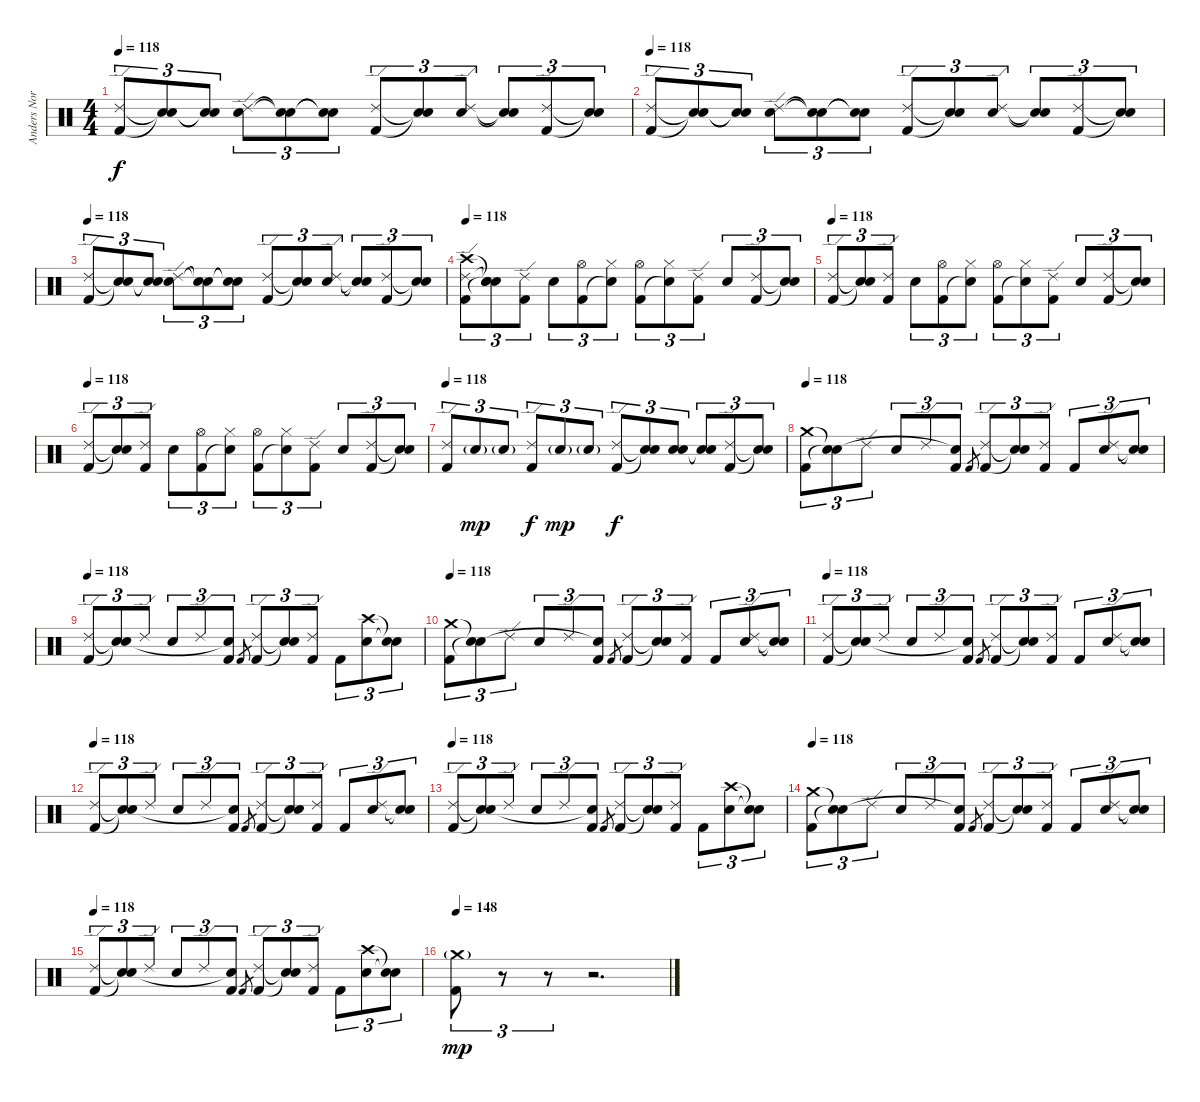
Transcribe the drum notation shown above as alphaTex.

\track ("Anders Nordin" "Anders Nor") {instrument percussion}
\staff {score}
\articulation defaults
\ts (4 4)
\tempo 118
\clef neutral
\ks c
("Kick (hit) 2" "Ride (edge) 2").8{tu (3 2) dy f} ("Snare (hit)"{t} "Snare (hit)"{t}).8{tu (3 2)} ("Snare (hit)"{t} "Snare (hit)"{t}).8{tu (3 2)} ("Electric Snare (hit)" "Ride (edge) 2").8{tu (3 2)} ("Snare (hit)"{t} "Snare (hit)"{t}).8{tu (3 2)} ("Snare (hit)"{t} "Snare (hit)"{t}).8{tu (3 2)} ("Kick (hit) 2" "Ride (edge) 2").8{tu (3 2)} ("Snare (hit)"{t} "Snare (hit)"{t}).8{tu (3 2)} ("Electric Snare (hit)" "Ride (edge) 2").8{tu (3 2)} ("Snare (hit)"{t} "Snare (hit)"{t}).8{tu (3 2)} ("Kick (hit) 2" "Ride (edge) 2").8{tu (3 2)} ("Snare (hit)"{t} "Snare (hit)"{t}).8{tu (3 2)} |
\tempo 118
("Kick (hit) 2" "Ride (edge) 2").8{tu (3 2) volume 10} ("Snare (hit)"{t} "Snare (hit)"{t}).8{tu (3 2)} ("Snare (hit)"{t} "Snare (hit)"{t}).8{tu (3 2)} ("Electric Snare (hit)" "Ride (edge) 2").8{tu (3 2)} ("Snare (hit)"{t} "Snare (hit)"{t}).8{tu (3 2)} ("Snare (hit)"{t} "Snare (hit)"{t}).8{tu (3 2)} ("Kick (hit) 2" "Ride (edge) 2").8{tu (3 2)} ("Snare (hit)"{t} "Snare (hit)"{t}).8{tu (3 2)} ("Electric Snare (hit)" "Ride (edge) 2").8{tu (3 2)} ("Snare (hit)"{t} "Snare (hit)"{t}).8{tu (3 2)} ("Kick (hit) 2" "Ride (edge) 2").8{tu (3 2)} ("Snare (hit)"{t} "Snare (hit)"{t}).8{tu (3 2)} |
\tempo 118
("Kick (hit) 2" "Ride (edge) 2").8{tu (3 2)} ("Snare (hit)"{t} "Snare (hit)"{t}).8{tu (3 2)} ("Snare (hit)"{t} "Snare (hit)"{t}).8{tu (3 2)} ("Electric Snare (hit)" "Ride (edge) 2").8{tu (3 2)} ("Snare (hit)"{t} "Snare (hit)"{t}).8{tu (3 2)} ("Snare (hit)"{t} "Snare (hit)"{t}).8{tu (3 2)} ("Kick (hit) 2" "Ride (edge) 2").8{tu (3 2)} ("Snare (hit)"{t} "Snare (hit)"{t}).8{tu (3 2)} ("Electric Snare (hit)" "Ride (edge) 2").8{tu (3 2)} ("Snare (hit)"{t} "Snare (hit)"{t}).8{tu (3 2)} ("Kick (hit) 2" "Ride (edge) 2").8{tu (3 2)} ("Snare (hit)"{t} "Snare (hit)"{t}).8{tu (3 2)} |
\tempo 118
("Kick (hit) 2" "Ride (edge) 2" "Crash high (hit)").8{tu (3 2)} ("Snare (hit)"{t} "Snare (hit)"{t} "Snare (hit)"{t}).8{tu (3 2)} ("Kick (hit) 2" "Ride (edge) 2").8{tu (3 2)} "Electric Snare (hit)".8{tu (3 2)} ("Kick (hit) 2" "Hi-Hat (open)").8{tu (3 2)} ("Snare (hit)"{t} "Hi-Hat (closed)").8{tu (3 2)} ("Kick (hit) 2" "Hi-Hat (open)").8{tu (3 2)} ("Snare (hit)"{t} "Hi-Hat (closed)").8{tu (3 2)} ("Kick (hit) 2" "Ride (edge) 2").8{tu (3 2)} "Electric Snare (hit)".8{tu (3 2)} ("Kick (hit) 2" "Ride (edge) 2").8{tu (3 2)} ("Snare (hit)"{t} "Snare (hit)"{t}).8{tu (3 2)} |
\tempo 118
("Kick (hit) 2" "Ride (edge) 2").8{tu (3 2)} ("Snare (hit)"{t} "Snare (hit)"{t}).8{tu (3 2)} ("Kick (hit) 2" "Ride (edge) 2").8{tu (3 2)} "Electric Snare (hit)".8{tu (3 2)} ("Kick (hit) 2" "Hi-Hat (open)").8{tu (3 2)} ("Snare (hit)"{t} "Hi-Hat (closed)").8{tu (3 2)} ("Kick (hit) 2" "Hi-Hat (open)").8{tu (3 2)} ("Snare (hit)"{t} "Hi-Hat (closed)").8{tu (3 2)} ("Kick (hit) 2" "Ride (edge) 2").8{tu (3 2)} "Electric Snare (hit)".8{tu (3 2)} ("Kick (hit) 2" "Ride (edge) 2").8{tu (3 2)} ("Snare (hit)"{t} "Snare (hit)"{t}).8{tu (3 2)} |
\tempo 118
("Kick (hit) 2" "Ride (edge) 2").8{tu (3 2)} ("Snare (hit)"{t} "Snare (hit)"{t}).8{tu (3 2)} ("Kick (hit) 2" "Ride (edge) 2").8{tu (3 2)} "Electric Snare (hit)".8{tu (3 2)} ("Kick (hit) 2" "Hi-Hat (open)").8{tu (3 2)} ("Snare (hit)"{t} "Hi-Hat (closed)").8{tu (3 2)} ("Kick (hit) 2" "Hi-Hat (open)").8{tu (3 2)} ("Snare (hit)"{t} "Hi-Hat (closed)").8{tu (3 2)} ("Kick (hit) 2" "Ride (edge) 2").8{tu (3 2)} "Electric Snare (hit)".8{tu (3 2)} ("Kick (hit) 2" "Ride (edge) 2").8{tu (3 2)} ("Snare (hit)"{t} "Snare (hit)"{t}).8{tu (3 2)} |
\tempo 118
("Kick (hit) 2" "Ride (edge) 2").8{tu (3 2)} "Electric Snare (hit)"{g}.8{tu (3 2) dy mp} "Electric Snare (hit)"{g}.8{tu (3 2)} ("Kick (hit) 2" "Ride (edge) 2").8{tu (3 2) dy f} "Electric Snare (hit)"{g}.8{tu (3 2) dy mp} "Electric Snare (hit)"{g}.8{tu (3 2)} ("Kick (hit) 2" "Ride (edge) 2").8{tu (3 2) dy f} ("Snare (hit)"{t} "Snare (hit)"{t}).8{tu (3 2)} ("Electric Snare (hit)" "Electric Snare (hit)").8{tu (3 2)} ("Snare (hit)"{t} "Snare (hit)"{t}).8{tu (3 2)} ("Kick (hit) 2" "Ride (edge) 2").8{tu (3 2)} ("Snare (hit)"{t} "Snare (hit)"{t}).8{tu (3 2)} |
\tempo 118
("Kick (hit) 2" "Crash medium (hit)").8{tu (3 2) volume 12} ("Snare (hit)"{t} "Snare (hit)"{t}).8{tu (3 2)} "Ride (edge) 2".8{tu (3 2)} "Electric Snare (hit)".8{tu (3 2)} "Ride (edge) 2".8{tu (3 2)} ("Kick (hit) 2" "Snare (hit)"{t}).8{tu (3 2)} "Kick (hit) 2".8{gr} ("Kick (hit) 2" "Ride (edge) 2").8{tu (3 2)} ("Snare (hit)"{t} "Snare (hit)"{t}).8{tu (3 2)} ("Kick (hit) 2" "Ride (edge) 2").8{tu (3 2)} "Kick (hit) 2".8{tu (3 2)} ("Electric Snare (hit)" "Ride (edge) 2").8{tu (3 2)} ("Snare (hit)"{t} "Snare (hit)"{t}).8{tu (3 2)} |
\tempo 118
("Kick (hit) 2" "Ride (edge) 2").8{tu (3 2) volume 12} ("Snare (hit)"{t} "Snare (hit)"{t}).8{tu (3 2)} "Ride (edge) 2".8{tu (3 2)} "Electric Snare (hit)".8{tu (3 2)} "Ride (edge) 2".8{tu (3 2)} ("Kick (hit) 2" "Snare (hit)"{t}).8{tu (3 2)} "Kick (hit) 2".8{gr} ("Kick (hit) 2" "Ride (edge) 2").8{tu (3 2)} ("Snare (hit)"{t} "Snare (hit)"{t}).8{tu (3 2)} ("Kick (hit) 2" "Ride (edge) 2").8{tu (3 2)} "Kick (hit) 2".8{tu (3 2)} ("Electric Snare (hit)" "Crash high (hit)").8{tu (3 2)} ("Snare (hit)"{t} "Snare (hit)"{t}).8{tu (3 2)} |
\tempo 118
("Kick (hit) 2" "Crash medium (hit)").8{tu (3 2) volume 12} ("Snare (hit)"{t} "Snare (hit)"{t}).8{tu (3 2)} "Ride (edge) 2".8{tu (3 2)} "Electric Snare (hit)".8{tu (3 2)} "Ride (edge) 2".8{tu (3 2)} ("Kick (hit) 2" "Snare (hit)"{t}).8{tu (3 2)} "Kick (hit) 2".8{gr} ("Kick (hit) 2" "Ride (edge) 2").8{tu (3 2)} ("Snare (hit)"{t} "Snare (hit)"{t}).8{tu (3 2)} ("Kick (hit) 2" "Ride (edge) 2").8{tu (3 2)} "Kick (hit) 2".8{tu (3 2)} ("Electric Snare (hit)" "Ride (edge) 2").8{tu (3 2)} ("Snare (hit)"{t} "Snare (hit)"{t}).8{tu (3 2)} |
\tempo 118
("Kick (hit) 2" "Ride (edge) 2").8{tu (3 2) volume 12} ("Snare (hit)"{t} "Snare (hit)"{t}).8{tu (3 2)} "Ride (edge) 2".8{tu (3 2)} "Electric Snare (hit)".8{tu (3 2)} "Ride (edge) 2".8{tu (3 2)} ("Kick (hit) 2" "Snare (hit)"{t}).8{tu (3 2)} "Kick (hit) 2".8{gr} ("Kick (hit) 2" "Ride (edge) 2").8{tu (3 2)} ("Snare (hit)"{t} "Snare (hit)"{t}).8{tu (3 2)} ("Kick (hit) 2" "Ride (edge) 2").8{tu (3 2)} "Kick (hit) 2".8{tu (3 2)} ("Electric Snare (hit)" "Ride (edge) 2").8{tu (3 2)} ("Snare (hit)"{t} "Snare (hit)"{t}).8{tu (3 2)} |
\tempo 118
("Kick (hit) 2" "Ride (edge) 2").8{tu (3 2) volume 12} ("Snare (hit)"{t} "Snare (hit)"{t}).8{tu (3 2)} "Ride (edge) 2".8{tu (3 2)} "Electric Snare (hit)".8{tu (3 2)} "Ride (edge) 2".8{tu (3 2)} ("Kick (hit) 2" "Snare (hit)"{t}).8{tu (3 2)} "Kick (hit) 2".8{gr} ("Kick (hit) 2" "Ride (edge) 2").8{tu (3 2)} ("Snare (hit)"{t} "Snare (hit)"{t}).8{tu (3 2)} ("Kick (hit) 2" "Ride (edge) 2").8{tu (3 2)} "Kick (hit) 2".8{tu (3 2)} ("Electric Snare (hit)" "Ride (edge) 2").8{tu (3 2)} ("Snare (hit)"{t} "Snare (hit)"{t}).8{tu (3 2)} |
\tempo 118
("Kick (hit) 2" "Ride (edge) 2").8{tu (3 2) volume 12} ("Snare (hit)"{t} "Snare (hit)"{t}).8{tu (3 2)} "Ride (edge) 2".8{tu (3 2)} "Electric Snare (hit)".8{tu (3 2)} "Ride (edge) 2".8{tu (3 2)} ("Kick (hit) 2" "Snare (hit)"{t}).8{tu (3 2)} "Kick (hit) 2".8{gr} ("Kick (hit) 2" "Ride (edge) 2").8{tu (3 2)} ("Snare (hit)"{t} "Snare (hit)"{t}).8{tu (3 2)} ("Kick (hit) 2" "Ride (edge) 2").8{tu (3 2)} "Kick (hit) 2".8{tu (3 2)} ("Electric Snare (hit)" "Crash high (hit)").8{tu (3 2)} ("Snare (hit)"{t} "Snare (hit)"{t}).8{tu (3 2)} |
\tempo 118
("Kick (hit) 2" "Crash medium (hit)").8{tu (3 2) volume 12} ("Snare (hit)"{t} "Snare (hit)"{t}).8{tu (3 2)} "Ride (edge) 2".8{tu (3 2)} "Electric Snare (hit)".8{tu (3 2)} "Ride (edge) 2".8{tu (3 2)} ("Kick (hit) 2" "Snare (hit)"{t}).8{tu (3 2)} "Kick (hit) 2".8{gr} ("Kick (hit) 2" "Ride (edge) 2").8{tu (3 2)} ("Snare (hit)"{t} "Snare (hit)"{t}).8{tu (3 2)} ("Kick (hit) 2" "Ride (edge) 2").8{tu (3 2)} "Kick (hit) 2".8{tu (3 2)} ("Electric Snare (hit)" "Ride (edge) 2").8{tu (3 2)} ("Snare (hit)"{t} "Snare (hit)"{t}).8{tu (3 2)} |
\tempo 118
("Kick (hit) 2" "Ride (edge) 2").8{tu (3 2) volume 12} ("Snare (hit)"{t} "Snare (hit)"{t}).8{tu (3 2)} "Ride (edge) 2".8{tu (3 2)} "Electric Snare (hit)".8{tu (3 2)} "Ride (edge) 2".8{tu (3 2)} ("Kick (hit) 2" "Snare (hit)"{t}).8{tu (3 2)} "Kick (hit) 2".8{gr} ("Kick (hit) 2" "Ride (edge) 2").8{tu (3 2)} ("Snare (hit)"{t} "Snare (hit)"{t}).8{tu (3 2)} ("Kick (hit) 2" "Ride (edge) 2").8{tu (3 2)} "Kick (hit) 2".8{tu (3 2)} ("Electric Snare (hit)" "Crash high (hit)").8{tu (3 2)} ("Snare (hit)"{t} "Snare (hit)"{t}).8{tu (3 2)} |
\tempo 148
("Kick (hit) 2" "Crash medium (hit)"{g}).8{tu (3 2) dy mp} r.8{tu (3 2)} r.8{tu (3 2)} r.2{d}
